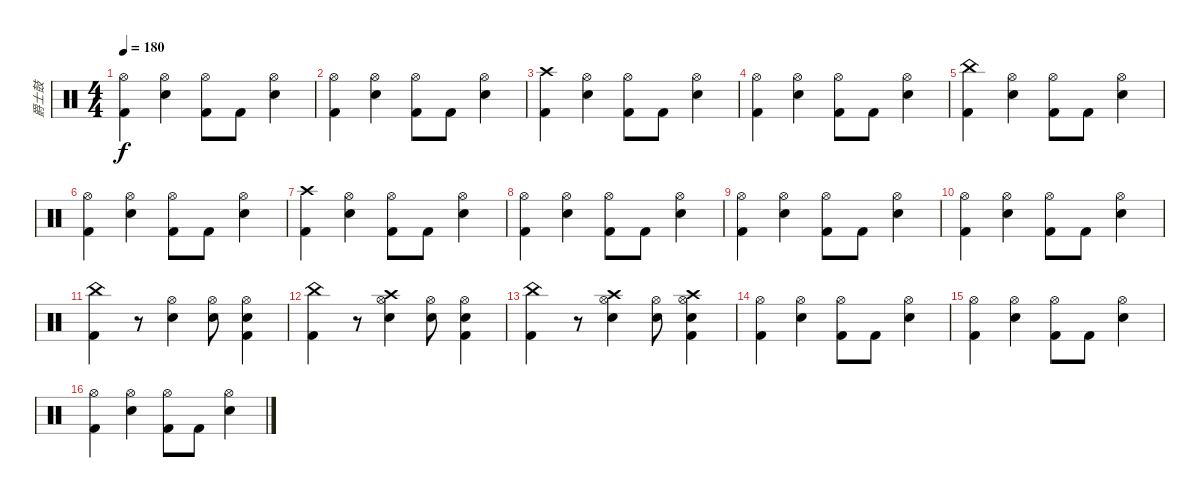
\track ("爵士鼓" "爵士鼓") {instrument percussion}
\staff {score}
\articulation defaults
\ts (4 4)
\tempo 180
\clef neutral
\ks c
("Hi-Hat (open)" "Kick (hit) 2").4{dy f} ("Hi-Hat (open)" "Snare (hit) 2").4 ("Hi-Hat (open)" "Kick (hit) 2").8 "Kick (hit) 2".8 ("Hi-Hat (open)" "Snare (hit) 2").4 |
("Hi-Hat (open)" "Kick (hit) 2").4 ("Hi-Hat (open)" "Snare (hit) 2").4 ("Hi-Hat (open)" "Kick (hit) 2").8 "Kick (hit) 2".8 ("Hi-Hat (open)" "Snare (hit) 2").4 |
("Crash high (hit)" "Kick (hit) 2").4 ("Hi-Hat (open)" "Snare (hit) 2").4 ("Hi-Hat (open)" "Kick (hit) 2").8 "Kick (hit) 2".8 ("Hi-Hat (open)" "Snare (hit) 2").4 |
("Hi-Hat (open)" "Kick (hit) 2").4 ("Hi-Hat (open)" "Snare (hit) 2").4 ("Hi-Hat (open)" "Kick (hit) 2").8 "Kick (hit) 2".8 ("Hi-Hat (open)" "Snare (hit) 2").4 |
("China (hit)" "Kick (hit) 2").4 ("Hi-Hat (open)" "Snare (hit) 2").4 ("Hi-Hat (open)" "Kick (hit) 2").8 "Kick (hit) 2".8 ("Hi-Hat (open)" "Snare (hit) 2").4 |
("Hi-Hat (open)" "Kick (hit) 2").4 ("Hi-Hat (open)" "Snare (hit) 2").4 ("Hi-Hat (open)" "Kick (hit) 2").8 "Kick (hit) 2".8 ("Hi-Hat (open)" "Snare (hit) 2").4 |
("Crash high (hit)" "Kick (hit) 2").4 ("Hi-Hat (open)" "Snare (hit) 2").4 ("Hi-Hat (open)" "Kick (hit) 2").8 "Kick (hit) 2".8 ("Hi-Hat (open)" "Snare (hit) 2").4 |
("Hi-Hat (open)" "Kick (hit) 2").4 ("Hi-Hat (open)" "Snare (hit) 2").4 ("Hi-Hat (open)" "Kick (hit) 2").8 "Kick (hit) 2".8 ("Hi-Hat (open)" "Snare (hit) 2").4 |
("Hi-Hat (open)" "Kick (hit) 2").4 ("Hi-Hat (open)" "Snare (hit) 2").4 ("Hi-Hat (open)" "Kick (hit) 2").8 "Kick (hit) 2".8 ("Hi-Hat (open)" "Snare (hit) 2").4 |
("Hi-Hat (open)" "Kick (hit) 2").4 ("Hi-Hat (open)" "Snare (hit) 2").4 ("Hi-Hat (open)" "Kick (hit) 2").8 "Kick (hit) 2".8 ("Hi-Hat (open)" "Snare (hit) 2").4 |
("China (hit)" "Kick (hit) 2").4 r.8 ("Hi-Hat (open)" "Snare (hit) 2").4 ("Hi-Hat (open)" "Snare (hit) 2").8 ("Hi-Hat (open)" "Snare (hit) 2" "Kick (hit) 2").4 |
("China (hit)" "Kick (hit) 2").4 r.8 ("Hi-Hat (open)" "Snare (hit) 2" "Crash high (hit)").4 ("Hi-Hat (open)" "Snare (hit) 2").8 ("Hi-Hat (open)" "Snare (hit) 2" "Kick (hit) 2").4 |
("China (hit)" "Kick (hit) 2").4 r.8 ("Hi-Hat (open)" "Snare (hit) 2" "Crash high (hit)").4 ("Hi-Hat (open)" "Snare (hit) 2").8 ("Hi-Hat (open)" "Snare (hit) 2" "Kick (hit) 2" "Crash high (hit)").4 |
("Hi-Hat (open)" "Kick (hit) 2").4 ("Hi-Hat (open)" "Snare (hit) 2").4 ("Hi-Hat (open)" "Kick (hit) 2").8 "Kick (hit) 2".8 ("Hi-Hat (open)" "Snare (hit) 2").4 |
("Hi-Hat (open)" "Kick (hit) 2").4 ("Hi-Hat (open)" "Snare (hit) 2").4 ("Hi-Hat (open)" "Kick (hit) 2").8 "Kick (hit) 2".8 ("Hi-Hat (open)" "Snare (hit) 2").4 |
("Hi-Hat (open)" "Kick (hit) 2").4 ("Hi-Hat (open)" "Snare (hit) 2").4 ("Hi-Hat (open)" "Kick (hit) 2").8 "Kick (hit) 2".8 ("Hi-Hat (open)" "Snare (hit) 2").4
